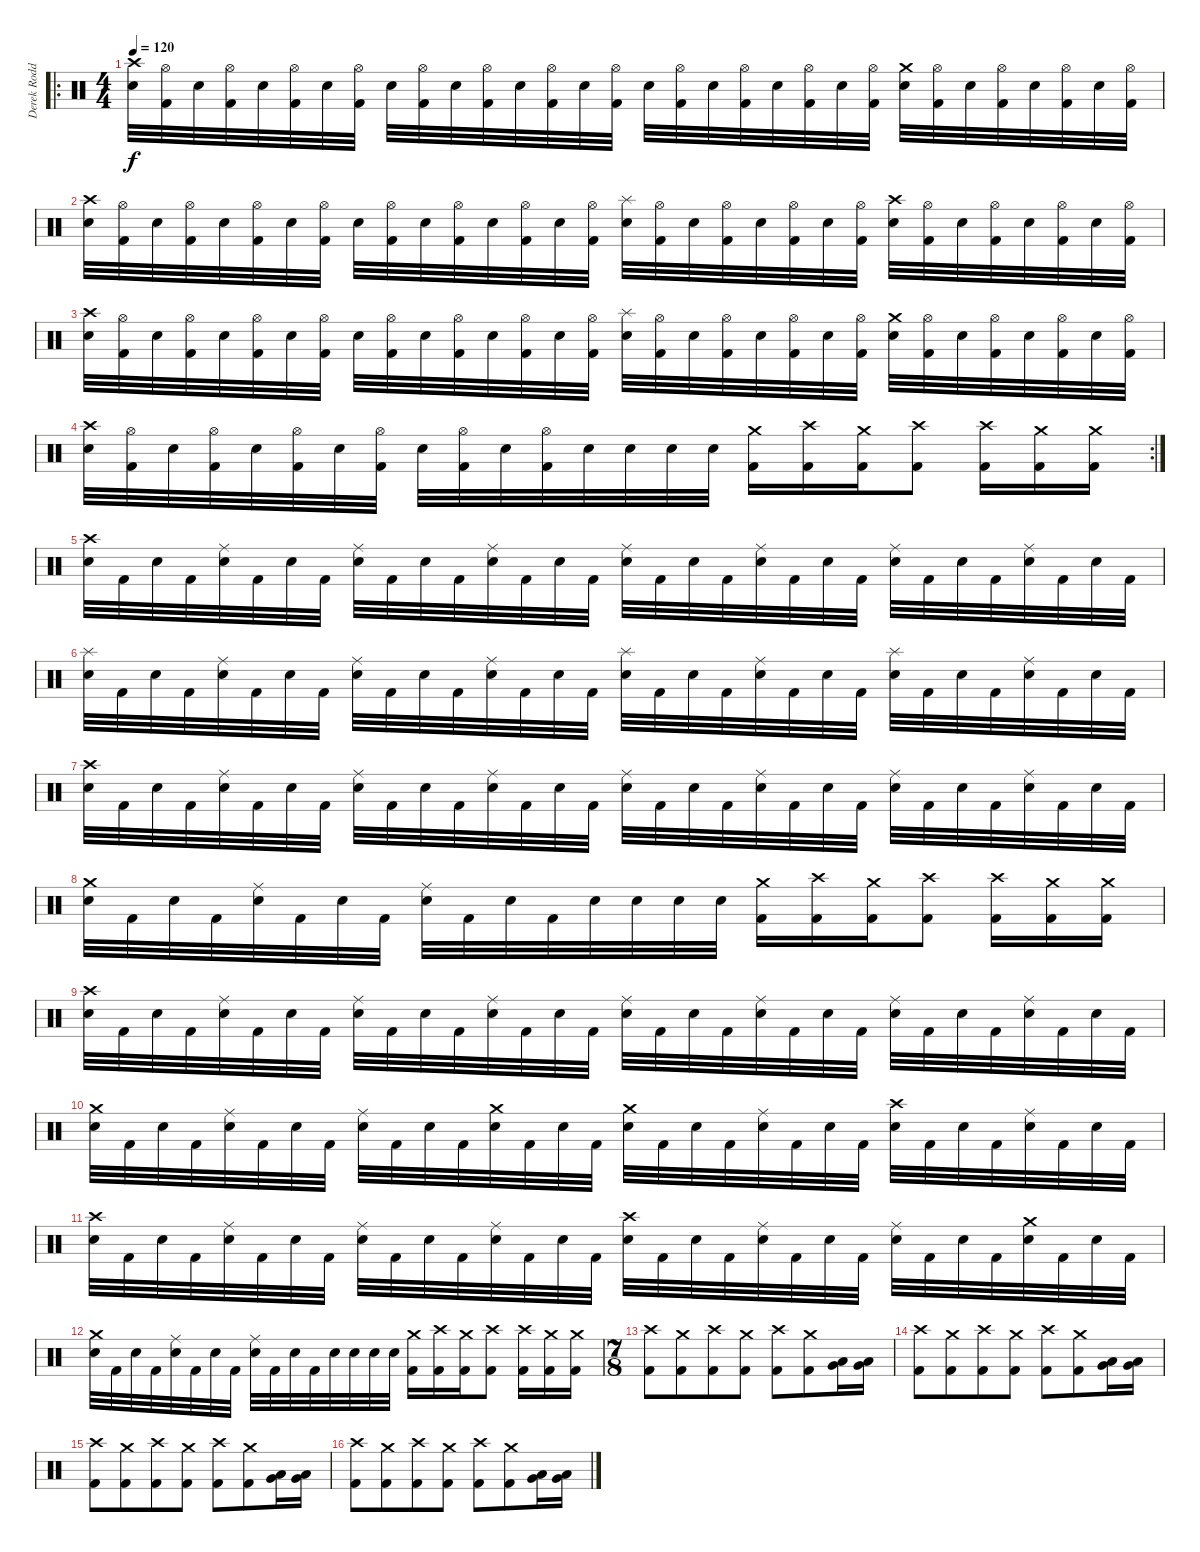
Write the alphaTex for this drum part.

\track ("Derek Roddy" "Derek Rodd") {instrument percussion}
\staff {score}
\articulation defaults
\ro
\ts (4 4)
\tempo 120
\clef neutral
\ks c
("Crash high (hit)" "Electric Snare (hit)").32{dy f} ("Hi-Hat (open)" "Kick (hit) 2").32 "Electric Snare (hit)".32 ("Hi-Hat (open)" "Kick (hit) 2").32 "Electric Snare (hit)".32 ("Hi-Hat (open)" "Kick (hit) 2").32 "Electric Snare (hit)".32 ("Hi-Hat (open)" "Kick (hit) 2").32 "Electric Snare (hit)".32 ("Hi-Hat (open)" "Kick (hit) 2").32 "Electric Snare (hit)".32 ("Hi-Hat (open)" "Kick (hit) 2").32 "Electric Snare (hit)".32 ("Hi-Hat (open)" "Kick (hit) 2").32 "Electric Snare (hit)".32 ("Hi-Hat (open)" "Kick (hit) 2").32 "Electric Snare (hit)".32 ("Hi-Hat (open)" "Kick (hit) 2").32 "Electric Snare (hit)".32 ("Hi-Hat (open)" "Kick (hit) 2").32 "Electric Snare (hit)".32 ("Hi-Hat (open)" "Kick (hit) 2").32 "Electric Snare (hit)".32 ("Hi-Hat (open)" "Kick (hit) 2").32 ("Crash medium (hit)" "Electric Snare (hit)").32 ("Hi-Hat (open)" "Kick (hit) 2").32 "Electric Snare (hit)".32 ("Hi-Hat (open)" "Kick (hit) 2").32 "Electric Snare (hit)".32 ("Hi-Hat (open)" "Kick (hit) 2").32 "Electric Snare (hit)".32 ("Hi-Hat (open)" "Kick (hit) 2").32 |
("Crash high (hit)" "Electric Snare (hit)").32 ("Hi-Hat (open)" "Kick (hit) 2").32 "Electric Snare (hit)".32 ("Hi-Hat (open)" "Kick (hit) 2").32 "Electric Snare (hit)".32 ("Hi-Hat (open)" "Kick (hit) 2").32 "Electric Snare (hit)".32 ("Hi-Hat (open)" "Kick (hit) 2").32 "Electric Snare (hit)".32 ("Hi-Hat (open)" "Kick (hit) 2").32 "Electric Snare (hit)".32 ("Hi-Hat (open)" "Kick (hit) 2").32 "Electric Snare (hit)".32 ("Hi-Hat (open)" "Kick (hit) 2").32 "Electric Snare (hit)".32 ("Hi-Hat (open)" "Kick (hit) 2").32 ("Splash (hit)" "Electric Snare (hit)").32 ("Hi-Hat (open)" "Kick (hit) 2").32 "Electric Snare (hit)".32 ("Hi-Hat (open)" "Kick (hit) 2").32 "Electric Snare (hit)".32 ("Hi-Hat (open)" "Kick (hit) 2").32 "Electric Snare (hit)".32 ("Hi-Hat (open)" "Kick (hit) 2").32 ("Crash high (hit)" "Electric Snare (hit)").32 ("Hi-Hat (open)" "Kick (hit) 2").32 "Electric Snare (hit)".32 ("Hi-Hat (open)" "Kick (hit) 2").32 "Electric Snare (hit)".32 ("Hi-Hat (open)" "Kick (hit) 2").32 "Electric Snare (hit)".32 ("Hi-Hat (open)" "Kick (hit) 2").32 |
("Crash high (hit)" "Electric Snare (hit)").32 ("Hi-Hat (open)" "Kick (hit) 2").32 "Electric Snare (hit)".32 ("Hi-Hat (open)" "Kick (hit) 2").32 "Electric Snare (hit)".32 ("Hi-Hat (open)" "Kick (hit) 2").32 "Electric Snare (hit)".32 ("Hi-Hat (open)" "Kick (hit) 2").32 "Electric Snare (hit)".32 ("Hi-Hat (open)" "Kick (hit) 2").32 "Electric Snare (hit)".32 ("Hi-Hat (open)" "Kick (hit) 2").32 "Electric Snare (hit)".32 ("Hi-Hat (open)" "Kick (hit) 2").32 "Electric Snare (hit)".32 ("Hi-Hat (open)" "Kick (hit) 2").32 ("Splash (hit)" "Electric Snare (hit)").32 ("Hi-Hat (open)" "Kick (hit) 2").32 "Electric Snare (hit)".32 ("Hi-Hat (open)" "Kick (hit) 2").32 "Electric Snare (hit)".32 ("Hi-Hat (open)" "Kick (hit) 2").32 "Electric Snare (hit)".32 ("Hi-Hat (open)" "Kick (hit) 2").32 ("Crash medium (hit)" "Electric Snare (hit)").32 ("Hi-Hat (open)" "Kick (hit) 2").32 "Electric Snare (hit)".32 ("Hi-Hat (open)" "Kick (hit) 2").32 "Electric Snare (hit)".32 ("Hi-Hat (open)" "Kick (hit) 2").32 "Electric Snare (hit)".32 ("Hi-Hat (open)" "Kick (hit) 2").32 |
\rc 2
("Crash high (hit)" "Electric Snare (hit)").32 ("Hi-Hat (open)" "Kick (hit) 2").32 "Electric Snare (hit)".32 ("Hi-Hat (open)" "Kick (hit) 2").32 "Electric Snare (hit)".32 ("Hi-Hat (open)" "Kick (hit) 2").32 "Electric Snare (hit)".32 ("Hi-Hat (open)" "Kick (hit) 2").32 "Electric Snare (hit)".32 ("Hi-Hat (open)" "Kick (hit) 2").32 "Electric Snare (hit)".32 ("Hi-Hat (open)" "Kick (hit) 2").32 "Electric Snare (hit)".32 "Electric Snare (hit)".32 "Electric Snare (hit)".32 "Electric Snare (hit)".32 ("Crash medium (hit)" "Kick (hit) 2").16 ("Crash high (hit)" "Kick (hit) 2").16 ("Crash medium (hit)" "Kick (hit) 2").16 ("Crash high (hit)" "Kick (hit) 2").8 ("Crash high (hit)" "Kick (hit) 2").16 ("Crash medium (hit)" "Kick (hit) 2").16 ("Crash medium (hit)" "Kick (hit) 2").16 |
("Crash high (hit)" "Electric Snare (hit)").32 "Kick (hit) 2".32 "Electric Snare (hit)".32 "Kick (hit) 2".32 ("Ride (middle)" "Electric Snare (hit)").32 "Kick (hit) 2".32 "Electric Snare (hit)".32 "Kick (hit) 2".32 ("Ride (middle)" "Electric Snare (hit)").32 "Kick (hit) 2".32 "Electric Snare (hit)".32 "Kick (hit) 2".32 ("Ride (middle)" "Electric Snare (hit)").32 "Kick (hit) 2".32 "Electric Snare (hit)".32 "Kick (hit) 2".32 ("Ride (middle)" "Electric Snare (hit)").32 "Kick (hit) 2".32 "Electric Snare (hit)".32 "Kick (hit) 2".32 ("Ride (middle)" "Electric Snare (hit)").32 "Kick (hit) 2".32 "Electric Snare (hit)".32 "Kick (hit) 2".32 ("Ride (middle)" "Electric Snare (hit)").32 "Kick (hit) 2".32 "Electric Snare (hit)".32 "Kick (hit) 2".32 ("Ride (middle)" "Electric Snare (hit)").32 "Kick (hit) 2".32 "Electric Snare (hit)".32 "Kick (hit) 2".32 |
("Splash (hit)" "Electric Snare (hit)").32 "Kick (hit) 2".32 "Electric Snare (hit)".32 "Kick (hit) 2".32 ("Ride (middle)" "Electric Snare (hit)").32 "Kick (hit) 2".32 "Electric Snare (hit)".32 "Kick (hit) 2".32 ("Ride (middle)" "Electric Snare (hit)").32 "Kick (hit) 2".32 "Electric Snare (hit)".32 "Kick (hit) 2".32 ("Ride (middle)" "Electric Snare (hit)").32 "Kick (hit) 2".32 "Electric Snare (hit)".32 "Kick (hit) 2".32 ("Splash (hit)" "Electric Snare (hit)").32 "Kick (hit) 2".32 "Electric Snare (hit)".32 "Kick (hit) 2".32 ("Ride (middle)" "Electric Snare (hit)").32 "Kick (hit) 2".32 "Electric Snare (hit)".32 "Kick (hit) 2".32 ("Splash (hit)" "Electric Snare (hit)").32 "Kick (hit) 2".32 "Electric Snare (hit)".32 "Kick (hit) 2".32 ("Ride (middle)" "Electric Snare (hit)").32 "Kick (hit) 2".32 "Electric Snare (hit)".32 "Kick (hit) 2".32 |
("Crash high (hit)" "Electric Snare (hit)").32 "Kick (hit) 2".32 "Electric Snare (hit)".32 "Kick (hit) 2".32 ("Ride (middle)" "Electric Snare (hit)").32 "Kick (hit) 2".32 "Electric Snare (hit)".32 "Kick (hit) 2".32 ("Ride (middle)" "Electric Snare (hit)").32 "Kick (hit) 2".32 "Electric Snare (hit)".32 "Kick (hit) 2".32 ("Ride (middle)" "Electric Snare (hit)").32 "Kick (hit) 2".32 "Electric Snare (hit)".32 "Kick (hit) 2".32 ("Ride (middle)" "Electric Snare (hit)").32 "Kick (hit) 2".32 "Electric Snare (hit)".32 "Kick (hit) 2".32 ("Ride (middle)" "Electric Snare (hit)").32 "Kick (hit) 2".32 "Electric Snare (hit)".32 "Kick (hit) 2".32 ("Ride (middle)" "Electric Snare (hit)").32 "Kick (hit) 2".32 "Electric Snare (hit)".32 "Kick (hit) 2".32 ("Ride (middle)" "Electric Snare (hit)").32 "Kick (hit) 2".32 "Electric Snare (hit)".32 "Kick (hit) 2".32 |
("Crash medium (hit)" "Electric Snare (hit)").32 "Kick (hit) 2".32 "Electric Snare (hit)".32 "Kick (hit) 2".32 ("Ride (middle)" "Electric Snare (hit)").32 "Kick (hit) 2".32 "Electric Snare (hit)".32 "Kick (hit) 2".32 ("Ride (middle)" "Electric Snare (hit)").32 "Kick (hit) 2".32 "Electric Snare (hit)".32 "Kick (hit) 2".32 "Electric Snare (hit)".32 "Electric Snare (hit)".32 "Electric Snare (hit)".32 "Electric Snare (hit)".32 ("Crash medium (hit)" "Kick (hit) 2").16 ("Crash high (hit)" "Kick (hit) 2").16 ("Crash medium (hit)" "Kick (hit) 2").16 ("Crash high (hit)" "Kick (hit) 2").8 ("Crash high (hit)" "Kick (hit) 2").16 ("Crash medium (hit)" "Kick (hit) 2").16 ("Crash medium (hit)" "Kick (hit) 2").16 |
("Crash high (hit)" "Electric Snare (hit)").32 "Kick (hit) 2".32 "Electric Snare (hit)".32 "Kick (hit) 2".32 ("Ride (middle)" "Electric Snare (hit)").32 "Kick (hit) 2".32 "Electric Snare (hit)".32 "Kick (hit) 2".32 ("Ride (middle)" "Electric Snare (hit)").32 "Kick (hit) 2".32 "Electric Snare (hit)".32 "Kick (hit) 2".32 ("Ride (middle)" "Electric Snare (hit)").32 "Kick (hit) 2".32 "Electric Snare (hit)".32 "Kick (hit) 2".32 ("Ride (middle)" "Electric Snare (hit)").32 "Kick (hit) 2".32 "Electric Snare (hit)".32 "Kick (hit) 2".32 ("Ride (middle)" "Electric Snare (hit)").32 "Kick (hit) 2".32 "Electric Snare (hit)".32 "Kick (hit) 2".32 ("Ride (middle)" "Electric Snare (hit)").32 "Kick (hit) 2".32 "Electric Snare (hit)".32 "Kick (hit) 2".32 ("Ride (middle)" "Electric Snare (hit)").32 "Kick (hit) 2".32 "Electric Snare (hit)".32 "Kick (hit) 2".32 |
("Crash medium (hit)" "Electric Snare (hit)").32 "Kick (hit) 2".32 "Electric Snare (hit)".32 "Kick (hit) 2".32 ("Ride (middle)" "Electric Snare (hit)").32 "Kick (hit) 2".32 "Electric Snare (hit)".32 "Kick (hit) 2".32 ("Ride (middle)" "Electric Snare (hit)").32 "Kick (hit) 2".32 "Electric Snare (hit)".32 "Kick (hit) 2".32 ("Crash medium (hit)" "Electric Snare (hit)").32 "Kick (hit) 2".32 "Electric Snare (hit)".32 "Kick (hit) 2".32 ("Crash medium (hit)" "Electric Snare (hit)").32 "Kick (hit) 2".32 "Electric Snare (hit)".32 "Kick (hit) 2".32 ("Ride (middle)" "Electric Snare (hit)").32 "Kick (hit) 2".32 "Electric Snare (hit)".32 "Kick (hit) 2".32 ("Crash high (hit)" "Electric Snare (hit)").32 "Kick (hit) 2".32 "Electric Snare (hit)".32 "Kick (hit) 2".32 ("Ride (middle)" "Electric Snare (hit)").32 "Kick (hit) 2".32 "Electric Snare (hit)".32 "Kick (hit) 2".32 |
("Crash high (hit)" "Electric Snare (hit)").32 "Kick (hit) 2".32 "Electric Snare (hit)".32 "Kick (hit) 2".32 ("Ride (middle)" "Electric Snare (hit)").32 "Kick (hit) 2".32 "Electric Snare (hit)".32 "Kick (hit) 2".32 ("Ride (middle)" "Electric Snare (hit)").32 "Kick (hit) 2".32 "Electric Snare (hit)".32 "Kick (hit) 2".32 ("Ride (middle)" "Electric Snare (hit)").32 "Kick (hit) 2".32 "Electric Snare (hit)".32 "Kick (hit) 2".32 ("Crash high (hit)" "Electric Snare (hit)").32 "Kick (hit) 2".32 "Electric Snare (hit)".32 "Kick (hit) 2".32 ("Ride (middle)" "Electric Snare (hit)").32 "Kick (hit) 2".32 "Electric Snare (hit)".32 "Kick (hit) 2".32 ("Ride (middle)" "Electric Snare (hit)").32 "Kick (hit) 2".32 "Electric Snare (hit)".32 "Kick (hit) 2".32 ("Crash medium (hit)" "Electric Snare (hit)").32 "Kick (hit) 2".32 "Electric Snare (hit)".32 "Kick (hit) 2".32 |
("Crash medium (hit)" "Electric Snare (hit)").32 "Kick (hit) 2".32 "Electric Snare (hit)".32 "Kick (hit) 2".32 ("Ride (middle)" "Electric Snare (hit)").32 "Kick (hit) 2".32 "Electric Snare (hit)".32 "Kick (hit) 2".32 ("Ride (middle)" "Electric Snare (hit)").32 "Kick (hit) 2".32 "Electric Snare (hit)".32 "Kick (hit) 2".32 "Electric Snare (hit)".32 "Electric Snare (hit)".32 "Electric Snare (hit)".32 "Electric Snare (hit)".32 ("Crash medium (hit)" "Kick (hit) 2").16 ("Crash high (hit)" "Kick (hit) 2").16 ("Crash medium (hit)" "Kick (hit) 2").16 ("Crash high (hit)" "Kick (hit) 2").8 ("Crash high (hit)" "Kick (hit) 2").16 ("Crash medium (hit)" "Kick (hit) 2").16 ("Crash medium (hit)" "Kick (hit) 2").16 |
\ts (7 8)
("Crash high (hit)" "Kick (hit) 2").8 ("Crash medium (hit)" "Kick (hit) 2").8 ("Crash high (hit)" "Kick (hit) 2").8 ("Crash medium (hit)" "Kick (hit) 2").8 ("Crash high (hit)" "Kick (hit) 2").8 ("Crash medium (hit)" "Kick (hit) 2").8 ("Low Tom (hit)" "Very Low Tom (hit)").16 ("Very Low Tom (hit)" "Low Floor Tom (hit)").16 |
("Crash high (hit)" "Kick (hit) 2").8 ("Crash medium (hit)" "Kick (hit) 2").8 ("Crash high (hit)" "Kick (hit) 2").8 ("Crash medium (hit)" "Kick (hit) 2").8 ("Crash high (hit)" "Kick (hit) 2").8 ("Crash medium (hit)" "Kick (hit) 2").8 ("Low Tom (hit)" "Very Low Tom (hit)").16 ("Very Low Tom (hit)" "Low Floor Tom (hit)").16 |
("Crash high (hit)" "Kick (hit) 2").8 ("Crash medium (hit)" "Kick (hit) 2").8 ("Crash high (hit)" "Kick (hit) 2").8 ("Crash medium (hit)" "Kick (hit) 2").8 ("Crash high (hit)" "Kick (hit) 2").8 ("Crash medium (hit)" "Kick (hit) 2").8 ("Low Tom (hit)" "Very Low Tom (hit)").16 ("Very Low Tom (hit)" "Low Floor Tom (hit)").16 |
("Crash high (hit)" "Kick (hit) 2").8 ("Crash medium (hit)" "Kick (hit) 2").8 ("Crash high (hit)" "Kick (hit) 2").8 ("Crash medium (hit)" "Kick (hit) 2").8 ("Crash high (hit)" "Kick (hit) 2").8 ("Crash medium (hit)" "Kick (hit) 2").8 ("Low Tom (hit)" "Very Low Tom (hit)").16 ("Very Low Tom (hit)" "Low Floor Tom (hit)").16
